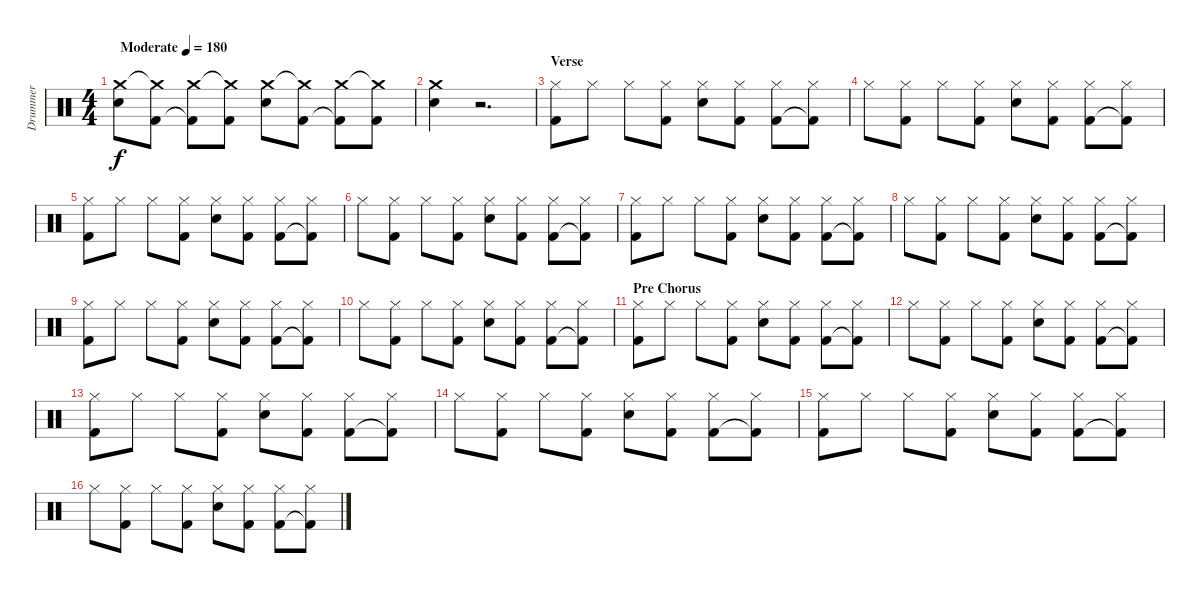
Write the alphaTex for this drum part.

\track ("Drummer" "Drummer") {instrument percussion}
\staff {score}
\articulation defaults
\ts (4 4)
\tempo (180 "Moderate")
\clef neutral
\ks c
("Snare (hit) 2" "Crash medium (hit)").8{dy f} ("Kick (hit) 2" "Crash medium (hit)"{t}).8 ("Kick (hit) 2"{t} "Crash medium (hit)").8 ("Kick (hit) 2" "Crash medium (hit)"{t}).8 ("Snare (hit) 2" "Crash medium (hit)").8 ("Kick (hit) 2" "Crash medium (hit)"{t}).8 ("Kick (hit) 2"{t} "Crash medium (hit)").8 ("Kick (hit) 2" "Crash medium (hit)"{t}).8 |
("Snare (hit) 2" "Crash medium (hit)").4 r.2{d} |
\section ("" "Verse")
("Kick (hit) 2" "Hi-Hat (closed)").8 "Hi-Hat (closed)".8 "Hi-Hat (closed)".8 ("Kick (hit) 2" "Hi-Hat (closed)").8 ("Snare (hit) 2" "Hi-Hat (closed)").8 ("Kick (hit) 2" "Hi-Hat (closed)").8 ("Kick (hit) 2" "Hi-Hat (closed)").8 ("Kick (hit) 2"{t} "Hi-Hat (closed)").8 |
"Hi-Hat (closed)".8 ("Kick (hit) 2" "Hi-Hat (closed)").8 "Hi-Hat (closed)".8 ("Kick (hit) 2" "Hi-Hat (closed)").8 ("Snare (hit) 2" "Hi-Hat (closed)").8 ("Kick (hit) 2" "Hi-Hat (closed)").8 ("Kick (hit) 2" "Hi-Hat (closed)").8 ("Kick (hit) 2"{t} "Hi-Hat (closed)").8 |
("Kick (hit) 2" "Hi-Hat (closed)").8 "Hi-Hat (closed)".8 "Hi-Hat (closed)".8 ("Kick (hit) 2" "Hi-Hat (closed)").8 ("Snare (hit) 2" "Hi-Hat (closed)").8 ("Kick (hit) 2" "Hi-Hat (closed)").8 ("Kick (hit) 2" "Hi-Hat (closed)").8 ("Kick (hit) 2"{t} "Hi-Hat (closed)").8 |
"Hi-Hat (closed)".8 ("Kick (hit) 2" "Hi-Hat (closed)").8 "Hi-Hat (closed)".8 ("Kick (hit) 2" "Hi-Hat (closed)").8 ("Snare (hit) 2" "Hi-Hat (closed)").8 ("Kick (hit) 2" "Hi-Hat (closed)").8 ("Kick (hit) 2" "Hi-Hat (closed)").8 ("Kick (hit) 2"{t} "Hi-Hat (closed)").8 |
("Kick (hit) 2" "Hi-Hat (closed)").8 "Hi-Hat (closed)".8 "Hi-Hat (closed)".8 ("Kick (hit) 2" "Hi-Hat (closed)").8 ("Snare (hit) 2" "Hi-Hat (closed)").8 ("Kick (hit) 2" "Hi-Hat (closed)").8 ("Kick (hit) 2" "Hi-Hat (closed)").8 ("Kick (hit) 2"{t} "Hi-Hat (closed)").8 |
"Hi-Hat (closed)".8 ("Kick (hit) 2" "Hi-Hat (closed)").8 "Hi-Hat (closed)".8 ("Kick (hit) 2" "Hi-Hat (closed)").8 ("Snare (hit) 2" "Hi-Hat (closed)").8 ("Kick (hit) 2" "Hi-Hat (closed)").8 ("Kick (hit) 2" "Hi-Hat (closed)").8 ("Kick (hit) 2"{t} "Hi-Hat (closed)").8 |
("Kick (hit) 2" "Hi-Hat (closed)").8 "Hi-Hat (closed)".8 "Hi-Hat (closed)".8 ("Kick (hit) 2" "Hi-Hat (closed)").8 ("Snare (hit) 2" "Hi-Hat (closed)").8 ("Kick (hit) 2" "Hi-Hat (closed)").8 ("Kick (hit) 2" "Hi-Hat (closed)").8 ("Kick (hit) 2"{t} "Hi-Hat (closed)").8 |
"Hi-Hat (closed)".8 ("Kick (hit) 2" "Hi-Hat (closed)").8 "Hi-Hat (closed)".8 ("Kick (hit) 2" "Hi-Hat (closed)").8 ("Snare (hit) 2" "Hi-Hat (closed)").8 ("Kick (hit) 2" "Hi-Hat (closed)").8 ("Kick (hit) 2" "Hi-Hat (closed)").8 ("Kick (hit) 2"{t} "Hi-Hat (closed)").8 |
\section ("" "Pre Chorus")
("Kick (hit) 2" "Hi-Hat (closed)").8 "Hi-Hat (closed)".8 "Hi-Hat (closed)".8 ("Kick (hit) 2" "Hi-Hat (closed)").8 ("Snare (hit) 2" "Hi-Hat (closed)").8 ("Kick (hit) 2" "Hi-Hat (closed)").8 ("Kick (hit) 2" "Hi-Hat (closed)").8 ("Kick (hit) 2"{t} "Hi-Hat (closed)").8 |
"Hi-Hat (closed)".8 ("Kick (hit) 2" "Hi-Hat (closed)").8 "Hi-Hat (closed)".8 ("Kick (hit) 2" "Hi-Hat (closed)").8 ("Snare (hit) 2" "Hi-Hat (closed)").8 ("Kick (hit) 2" "Hi-Hat (closed)").8 ("Kick (hit) 2" "Hi-Hat (closed)").8 ("Kick (hit) 2"{t} "Hi-Hat (closed)").8 |
("Kick (hit) 2" "Hi-Hat (closed)").8 "Hi-Hat (closed)".8 "Hi-Hat (closed)".8 ("Kick (hit) 2" "Hi-Hat (closed)").8 ("Snare (hit) 2" "Hi-Hat (closed)").8 ("Kick (hit) 2" "Hi-Hat (closed)").8 ("Kick (hit) 2" "Hi-Hat (closed)").8 ("Kick (hit) 2"{t} "Hi-Hat (closed)").8 |
"Hi-Hat (closed)".8 ("Kick (hit) 2" "Hi-Hat (closed)").8 "Hi-Hat (closed)".8 ("Kick (hit) 2" "Hi-Hat (closed)").8 ("Snare (hit) 2" "Hi-Hat (closed)").8 ("Kick (hit) 2" "Hi-Hat (closed)").8 ("Kick (hit) 2" "Hi-Hat (closed)").8 ("Kick (hit) 2"{t} "Hi-Hat (closed)").8 |
("Kick (hit) 2" "Hi-Hat (closed)").8 "Hi-Hat (closed)".8 "Hi-Hat (closed)".8 ("Kick (hit) 2" "Hi-Hat (closed)").8 ("Snare (hit) 2" "Hi-Hat (closed)").8 ("Kick (hit) 2" "Hi-Hat (closed)").8 ("Kick (hit) 2" "Hi-Hat (closed)").8 ("Kick (hit) 2"{t} "Hi-Hat (closed)").8 |
"Hi-Hat (closed)".8 ("Kick (hit) 2" "Hi-Hat (closed)").8 "Hi-Hat (closed)".8 ("Kick (hit) 2" "Hi-Hat (closed)").8 ("Snare (hit) 2" "Hi-Hat (closed)").8 ("Kick (hit) 2" "Hi-Hat (closed)").8 ("Kick (hit) 2" "Hi-Hat (closed)").8 ("Kick (hit) 2"{t} "Hi-Hat (closed)").8
